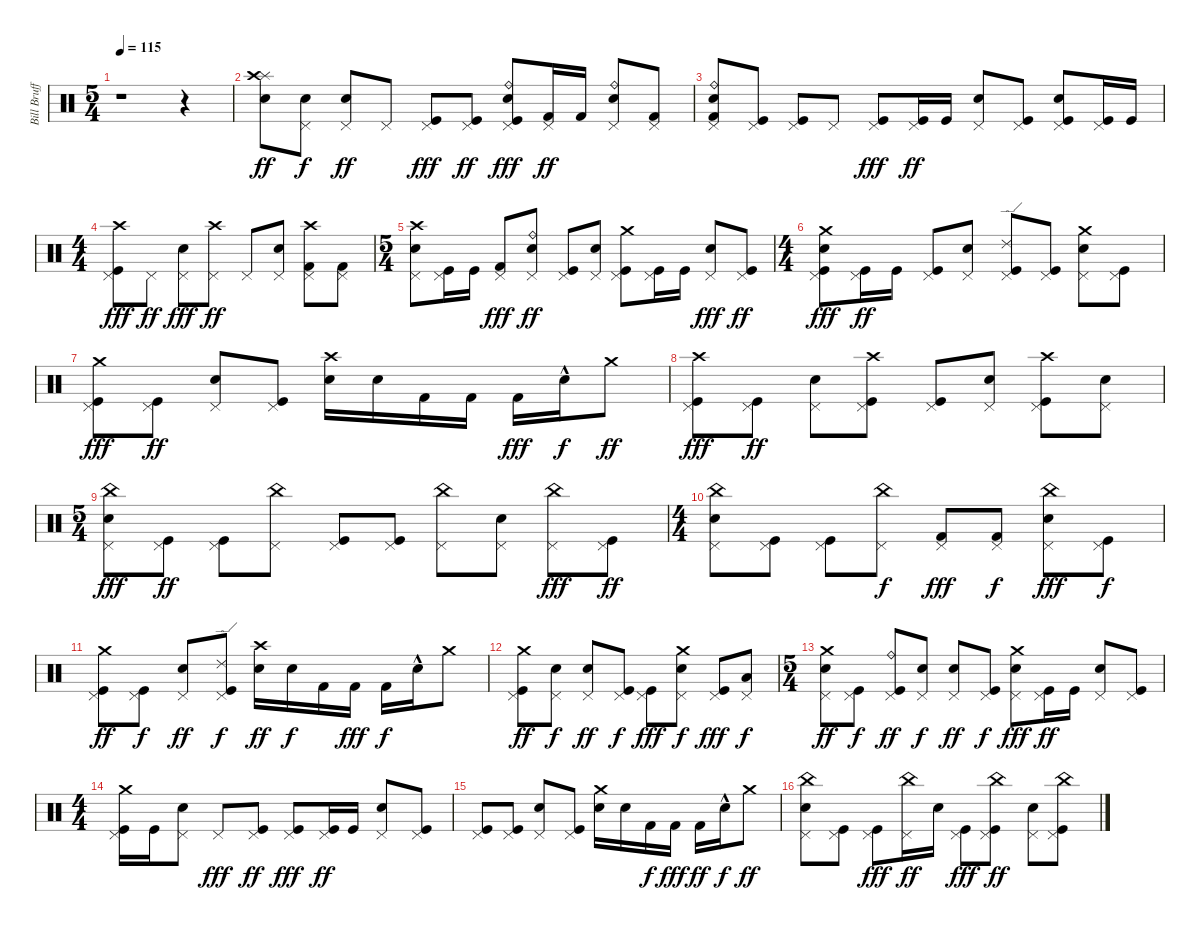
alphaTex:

\track ("Bill Brufford Drums" "Bill Bruff") {instrument percussion}
\staff {score}
\articulation defaults
\ts (5 4)
\tempo 115
\clef neutral
\ks c
r.1{dy ff} r.4 |
("Splash (hit)" "Crash high (hit)" "Snare (hit) 2").8 ("Pedal Hi-Hat (hit)" "Electric Snare (hit)").8{dy f} ("Pedal Hi-Hat (hit)" "Electric Snare (hit)").8{dy ff} "Pedal Hi-Hat (hit)".8 ("Pedal Hi-Hat (hit)" "Kick (hit)").8{dy fff} ("Pedal Hi-Hat (hit)" "Kick (hit)").8{dy ff} ("Kick (hit)" "Pedal Hi-Hat (hit)" "Ride (bell)" "Electric Snare (hit)").8{dy fff} ("Pedal Hi-Hat (hit)" "Kick (hit) 2").16{dy ff} "Kick (hit) 2".16 ("Pedal Hi-Hat (hit)" "Ride (bell)" "Electric Snare (hit)").8 ("Pedal Hi-Hat (hit)" "Kick (hit) 2").8 |
("Kick (hit) 2" "Pedal Hi-Hat (hit)" "Ride (bell)" "Electric Snare (hit)").8 ("Pedal Hi-Hat (hit)" "Kick (hit)").8 ("Pedal Hi-Hat (hit)" "Kick (hit)").8 "Pedal Hi-Hat (hit)".8 ("Pedal Hi-Hat (hit)" "Kick (hit)").8{dy fff} ("Pedal Hi-Hat (hit)" "Kick (hit)").16{dy ff} "Kick (hit)".16 ("Pedal Hi-Hat (hit)" "Electric Snare (hit)").8 ("Pedal Hi-Hat (hit)" "Kick (hit)").8 ("Kick (hit)" "Pedal Hi-Hat (hit)" "Electric Snare (hit)").8 ("Pedal Hi-Hat (hit)" "Kick (hit)").16 "Kick (hit)".16 |
\ts (4 4)
("Pedal Hi-Hat (hit)" "Crash high (hit)" "Kick (hit)").8{dy fff} "Pedal Hi-Hat (hit)".8{dy ff} ("Pedal Hi-Hat (hit)" "Snare (hit) 2").8{dy fff} ("Pedal Hi-Hat (hit)" "Crash high (hit)").8{dy ff} "Pedal Hi-Hat (hit)".8 ("Pedal Hi-Hat (hit)" "Snare (hit) 2").8 ("Pedal Hi-Hat (hit)" "Kick (hit) 2" "Crash high (hit)").8 ("Pedal Hi-Hat (hit)" "Kick (hit) 2").8 |
\ts (5 4)
("Pedal Hi-Hat (hit)" "Crash high (hit)" "Snare (hit) 2").8 ("Pedal Hi-Hat (hit)" "Kick (hit)").16 "Kick (hit)".16 ("Pedal Hi-Hat (hit)" "Kick (hit) 2").8{dy fff} ("Pedal Hi-Hat (hit)" "Ride (bell)" "Electric Snare (hit)").8{dy ff} ("Pedal Hi-Hat (hit)" "Kick (hit)").8 ("Pedal Hi-Hat (hit)" "Electric Snare (hit)").8 ("Pedal Hi-Hat (hit)" "Crash medium (hit)" "Kick (hit)").8 ("Pedal Hi-Hat (hit)" "Kick (hit)").16 "Kick (hit)".16 ("Pedal Hi-Hat (hit)" "Electric Snare (hit)").8{dy fff} ("Pedal Hi-Hat (hit)" "Kick (hit)").8{dy ff} |
\ts (4 4)
("Kick (hit)" "Pedal Hi-Hat (hit)" "Crash medium (hit)" "Electric Snare (hit)").8{dy fff} ("Pedal Hi-Hat (hit)" "Kick (hit)").16{dy ff} "Kick (hit)".16 ("Pedal Hi-Hat (hit)" "Kick (hit)").8 ("Pedal Hi-Hat (hit)" "Electric Snare (hit)").8 ("Pedal Hi-Hat (hit)" "Ride (edge) 2" "Kick (hit)").8 ("Pedal Hi-Hat (hit)" "Kick (hit)").8 ("Pedal Hi-Hat (hit)" "Crash medium (hit)" "Electric Snare (hit)").8 ("Pedal Hi-Hat (hit)" "Kick (hit)").8 |
("Kick (hit)" "Crash medium (hit)" "Pedal Hi-Hat (hit)").8{dy fff} ("Pedal Hi-Hat (hit)" "Kick (hit)").8{dy ff} ("Pedal Hi-Hat (hit)" "Snare (hit) 2").8 ("Pedal Hi-Hat (hit)" "Kick (hit)").8 ("Crash high (hit)" "Electric Snare (hit)").16 "Electric Snare (hit)".16 "Kick (hit) 2".16 "Kick (hit) 2".16 "Kick (hit) 2".16{dy fff} "Electric Snare (hit)"{hac}.16{dy f} "Crash medium (hit)".8{dy ff} |
("Pedal Hi-Hat (hit)" "Crash high (hit)" "Kick (hit)").8{dy fff} ("Pedal Hi-Hat (hit)" "Kick (hit)").8{dy ff} ("Pedal Hi-Hat (hit)" "Electric Snare (hit)").8 ("Pedal Hi-Hat (hit)" "Crash high (hit)" "Kick (hit)").8 ("Pedal Hi-Hat (hit)" "Kick (hit)").8 ("Pedal Hi-Hat (hit)" "Electric Snare (hit)").8 ("Pedal Hi-Hat (hit)" "Crash high (hit)" "Kick (hit)").8 ("Pedal Hi-Hat (hit)" "Electric Snare (hit)").8 |
\ts (5 4)
("Pedal Hi-Hat (hit)" "Snare (hit) 2" "China (hit)").8{dy fff} ("Pedal Hi-Hat (hit)" "Kick (hit)").8{dy ff} ("Pedal Hi-Hat (hit)" "Kick (hit)").8 ("Pedal Hi-Hat (hit)" "China (hit)").8 ("Pedal Hi-Hat (hit)" "Kick (hit)").8 ("Pedal Hi-Hat (hit)" "Kick (hit)").8 ("Pedal Hi-Hat (hit)" "China (hit)").8 ("Pedal Hi-Hat (hit)" "Snare (hit) 2").8 ("Pedal Hi-Hat (hit)" "China (hit)").8{dy fff} ("Pedal Hi-Hat (hit)" "Kick (hit)").8{dy ff} |
\ts (4 4)
("Pedal Hi-Hat (hit)" "Electric Snare (hit)" "China (hit)").8 ("Pedal Hi-Hat (hit)" "Kick (hit)").8 ("Pedal Hi-Hat (hit)" "Kick (hit)").8 ("Pedal Hi-Hat (hit)" "China (hit)").8{dy f} ("Pedal Hi-Hat (hit)" "Kick (hit) 2").8{dy fff} ("Pedal Hi-Hat (hit)" "Kick (hit) 2").8{dy f} ("Pedal Hi-Hat (hit)" "Electric Snare (hit)" "China (hit)").8{dy fff} ("Pedal Hi-Hat (hit)" "Kick (hit)").8{dy f} |
("Pedal Hi-Hat (hit)" "Crash medium (hit)" "Kick (hit)").8{dy ff} ("Pedal Hi-Hat (hit)" "Kick (hit)").8{dy f} ("Pedal Hi-Hat (hit)" "Electric Snare (hit)").8{dy ff} ("Pedal Hi-Hat (hit)" "Ride (edge) 2" "Kick (hit)").8{dy f} ("Crash high (hit)" "Electric Snare (hit)").16{dy ff} "Electric Snare (hit)".16{dy f} "Kick (hit) 2".16 "Kick (hit) 2".16{dy fff} "Kick (hit) 2".16{dy f} "Electric Snare (hit)"{hac}.16 "Crash medium (hit)".8 |
("Pedal Hi-Hat (hit)" "Crash medium (hit)" "Kick (hit)").8{dy ff} ("Pedal Hi-Hat (hit)" "Electric Snare (hit)").8{dy f} ("Pedal Hi-Hat (hit)" "Electric Snare (hit)").8{dy ff} ("Pedal Hi-Hat (hit)" "Kick (hit)").8{dy f} ("Pedal Hi-Hat (hit)" "Kick (hit)").8{dy fff} ("Pedal Hi-Hat (hit)" "Crash medium (hit)" "Electric Snare (hit)").8{dy f} ("Pedal Hi-Hat (hit)" "Kick (hit)").8{dy fff} ("Pedal Hi-Hat (hit)" "Low Tom (hit)").8{dy f} |
\ts (5 4)
("Pedal Hi-Hat (hit)" "Crash medium (hit)" "Electric Snare (hit)").8{dy ff} ("Pedal Hi-Hat (hit)" "Kick (hit)").8{dy f} ("Pedal Hi-Hat (hit)" "Ride (bell)" "Kick (hit)").8{dy ff} ("Pedal Hi-Hat (hit)" "Electric Snare (hit)").8{dy f} ("Pedal Hi-Hat (hit)" "Electric Snare (hit)").8{dy ff} ("Pedal Hi-Hat (hit)" "Kick (hit)").8{dy f} ("Pedal Hi-Hat (hit)" "Crash medium (hit)" "Electric Snare (hit)").8{dy fff} ("Pedal Hi-Hat (hit)" "Kick (hit)").16{dy ff} "Kick (hit)".16 ("Pedal Hi-Hat (hit)" "Electric Snare (hit)").8 ("Pedal Hi-Hat (hit)" "Kick (hit)").8 |
\ts (4 4)
("Kick (hit)" "Pedal Hi-Hat (hit)" "Crash medium (hit)").16 "Kick (hit)".16 ("Pedal Hi-Hat (hit)" "Electric Snare (hit)").8 "Pedal Hi-Hat (hit)".8{dy fff} ("Pedal Hi-Hat (hit)" "Kick (hit)").8{dy ff} ("Pedal Hi-Hat (hit)" "Kick (hit)").8{dy fff} ("Pedal Hi-Hat (hit)" "Kick (hit)").16{dy ff} "Kick (hit)".16 ("Pedal Hi-Hat (hit)" "Electric Snare (hit)").8 ("Pedal Hi-Hat (hit)" "Kick (hit)").8 |
("Pedal Hi-Hat (hit)" "Kick (hit)").8 ("Pedal Hi-Hat (hit)" "Kick (hit)").8 ("Pedal Hi-Hat (hit)" "Electric Snare (hit)").8 ("Pedal Hi-Hat (hit)" "Kick (hit)").8 ("Crash medium (hit)" "Electric Snare (hit)").16 "Electric Snare (hit)".16 "Kick (hit) 2".16{dy f} "Kick (hit) 2".16{dy fff} "Kick (hit) 2".16{dy ff} "Electric Snare (hit)"{hac}.16{dy f} "Crash medium (hit)".8{dy ff} |
("Pedal Hi-Hat (hit)" "China (hit)" "Electric Snare (hit)").8 ("Pedal Hi-Hat (hit)" "Kick (hit)").8 ("Pedal Hi-Hat (hit)" "Kick (hit)").8{dy fff} ("Pedal Hi-Hat (hit)" "China (hit)").16{dy ff} "Electric Snare (hit)".16 ("Pedal Hi-Hat (hit)" "Kick (hit)").8{dy fff} ("Pedal Hi-Hat (hit)" "China (hit)" "Kick (hit)").8{dy ff} ("Pedal Hi-Hat (hit)" "Electric Snare (hit)").8 ("Kick (hit)" "Pedal Hi-Hat (hit)" "China (hit)").8
